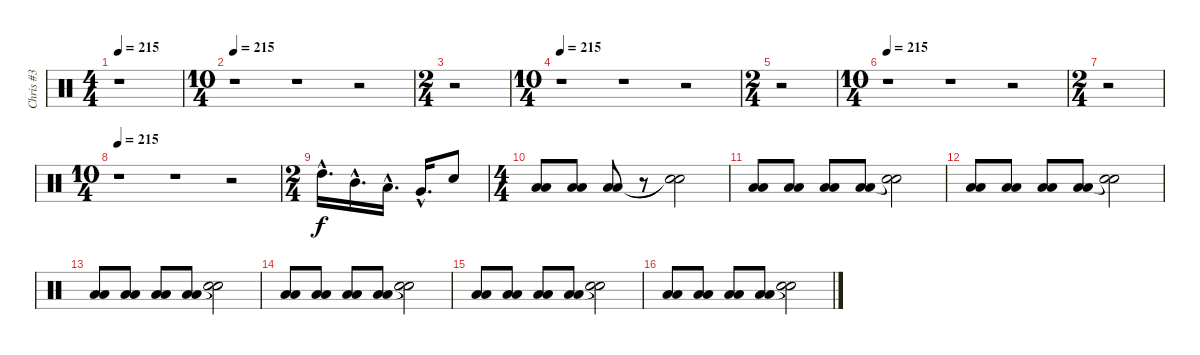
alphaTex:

\track ("Chris #3" "Chris #3") {instrument percussion}
\staff {score}
\articulation defaults
\ts (4 4)
\tempo 215
\clef neutral
\ks c
r.1{dy f} |
\ts (10 4)
\tempo 215
r.1 r.1 r.2 |
\ts (2 4)
r.2 |
\ts (10 4)
\tempo 215
r.1 r.1 r.2 |
\ts (2 4)
r.2 |
\ts (10 4)
\tempo 215
r.1 r.1 r.2 |
\ts (2 4)
r.2 |
\ts (10 4)
\tempo 215
r.1 r.1 r.2 |
\ts (2 4)
"High Tom (hit)"{hac}.16{d volume 16} "Mid Tom (hit)"{hac}.16{d} "Low Tom (hit)"{hac}.16{d} "Very Low Tom (hit)"{hac}.16{d} "Snare (hit) 2".8 |
\ts (4 4)
("Low Floor Tom (hit)" "Low Floor Tom (hit)").8{volume 16} ("Low Floor Tom (hit)" "Low Floor Tom (hit)").8 ("Low Floor Tom (hit)" "Low Floor Tom (hit)").8 r.8 ("Snare (hit)"{t} "Snare (hit)"{t}).2 |
("Low Floor Tom (hit)" "Low Floor Tom (hit)").8 ("Low Floor Tom (hit)" "Low Floor Tom (hit)").8 ("Low Floor Tom (hit)" "Low Floor Tom (hit)").8 ("Low Floor Tom (hit)" "Low Floor Tom (hit)").8 ("Snare (hit)"{t} "Snare (hit)"{t}).2 |
("Low Floor Tom (hit)" "Low Floor Tom (hit)").8 ("Low Floor Tom (hit)" "Low Floor Tom (hit)").8 ("Low Floor Tom (hit)" "Low Floor Tom (hit)").8 ("Low Floor Tom (hit)" "Low Floor Tom (hit)").8 ("Snare (hit)"{t} "Snare (hit)"{t}).2 |
("Low Floor Tom (hit)" "Low Floor Tom (hit)").8 ("Low Floor Tom (hit)" "Low Floor Tom (hit)").8 ("Low Floor Tom (hit)" "Low Floor Tom (hit)").8 ("Low Floor Tom (hit)" "Low Floor Tom (hit)").8 ("Snare (hit)"{t} "Snare (hit)"{t}).2 |
("Low Floor Tom (hit)" "Low Floor Tom (hit)").8 ("Low Floor Tom (hit)" "Low Floor Tom (hit)").8 ("Low Floor Tom (hit)" "Low Floor Tom (hit)").8 ("Low Floor Tom (hit)" "Low Floor Tom (hit)").8 ("Snare (hit)"{t} "Snare (hit)"{t}).2 |
("Low Floor Tom (hit)" "Low Floor Tom (hit)").8 ("Low Floor Tom (hit)" "Low Floor Tom (hit)").8 ("Low Floor Tom (hit)" "Low Floor Tom (hit)").8 ("Low Floor Tom (hit)" "Low Floor Tom (hit)").8 ("Snare (hit)"{t} "Snare (hit)"{t}).2 |
("Low Floor Tom (hit)" "Low Floor Tom (hit)").8 ("Low Floor Tom (hit)" "Low Floor Tom (hit)").8 ("Low Floor Tom (hit)" "Low Floor Tom (hit)").8 ("Low Floor Tom (hit)" "Low Floor Tom (hit)").8 ("Snare (hit)"{t} "Snare (hit)"{t}).2
